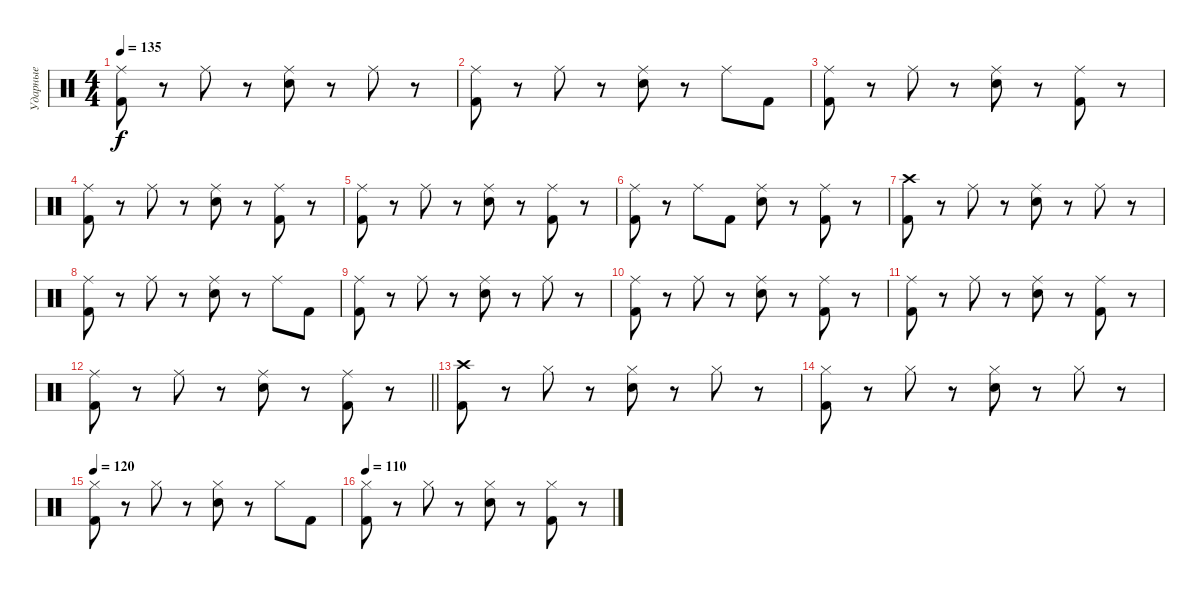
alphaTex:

\track ("Ударные" "Ударные") {instrument percussion}
\staff {score}
\articulation defaults
\ts (4 4)
\tempo 135
\clef neutral
\ks c
("Ride (middle)" "Kick (hit) 2").8{dy f} r.8 "Ride (middle)".8 r.8 ("Ride (middle)" "Electric Snare (hit)").8 r.8 "Ride (middle)".8 r.8 |
("Ride (middle)" "Kick (hit) 2").8 r.8 "Ride (middle)".8 r.8 ("Ride (middle)" "Electric Snare (hit)").8 r.8 "Ride (middle)".8 "Kick (hit) 2".8 |
("Ride (middle)" "Kick (hit) 2").8 r.8 "Ride (middle)".8 r.8 ("Ride (middle)" "Electric Snare (hit)").8 r.8 ("Ride (middle)" "Kick (hit) 2").8 r.8 |
("Ride (middle)" "Kick (hit) 2").8 r.8 "Ride (middle)".8 r.8 ("Ride (middle)" "Electric Snare (hit)").8 r.8 ("Ride (middle)" "Kick (hit) 2").8 r.8 |
("Ride (middle)" "Kick (hit) 2").8 r.8 "Ride (middle)".8 r.8 ("Ride (middle)" "Electric Snare (hit)").8 r.8 ("Ride (middle)" "Kick (hit) 2").8 r.8 |
("Ride (middle)" "Kick (hit) 2").8 r.8 "Ride (middle)".8 "Kick (hit) 2".8 ("Ride (middle)" "Electric Snare (hit)").8 r.8 ("Ride (middle)" "Kick (hit) 2").8 r.8 |
("Kick (hit) 2" "Crash high (hit)").8 r.8 "Ride (middle)".8 r.8 ("Ride (middle)" "Electric Snare (hit)").8 r.8 "Ride (middle)".8 r.8 |
("Ride (middle)" "Kick (hit) 2").8 r.8 "Ride (middle)".8 r.8 ("Ride (middle)" "Electric Snare (hit)").8 r.8 "Ride (middle)".8 "Kick (hit) 2".8 |
("Ride (middle)" "Kick (hit) 2").8 r.8 "Ride (middle)".8 r.8 ("Ride (middle)" "Electric Snare (hit)").8 r.8 "Ride (middle)".8 r.8 |
("Ride (middle)" "Kick (hit) 2").8 r.8 "Ride (middle)".8 r.8 ("Ride (middle)" "Electric Snare (hit)").8 r.8 ("Ride (middle)" "Kick (hit) 2").8 r.8 |
("Ride (middle)" "Kick (hit) 2").8 r.8 "Ride (middle)".8 r.8 ("Ride (middle)" "Electric Snare (hit)").8 r.8 ("Ride (middle)" "Kick (hit) 2").8 r.8 |
\barLineRight lightlight
("Ride (middle)" "Kick (hit) 2").8 r.8 "Ride (middle)".8 r.8 ("Ride (middle)" "Electric Snare (hit)").8 r.8 ("Ride (middle)" "Kick (hit) 2").8 r.8 |
("Kick (hit) 2" "Crash high (hit)").8 r.8 "Hi-Hat (closed)".8 r.8 ("Hi-Hat (closed)" "Electric Snare (hit)").8 r.8 "Hi-Hat (closed)".8 r.8 |
("Hi-Hat (closed)" "Kick (hit) 2").8 r.8 "Hi-Hat (closed)".8 r.8 ("Hi-Hat (closed)" "Electric Snare (hit)").8 r.8 "Hi-Hat (closed)".8 r.8 |
\tempo 120
("Hi-Hat (closed)" "Kick (hit) 2").8 r.8 "Hi-Hat (closed)".8 r.8 ("Hi-Hat (closed)" "Electric Snare (hit)").8 r.8 "Hi-Hat (closed)".8 "Kick (hit) 2".8 |
\tempo 110
("Hi-Hat (closed)" "Kick (hit) 2").8 r.8 "Hi-Hat (closed)".8 r.8 ("Hi-Hat (closed)" "Electric Snare (hit)").8 r.8 ("Hi-Hat (closed)" "Kick (hit) 2").8 r.8
